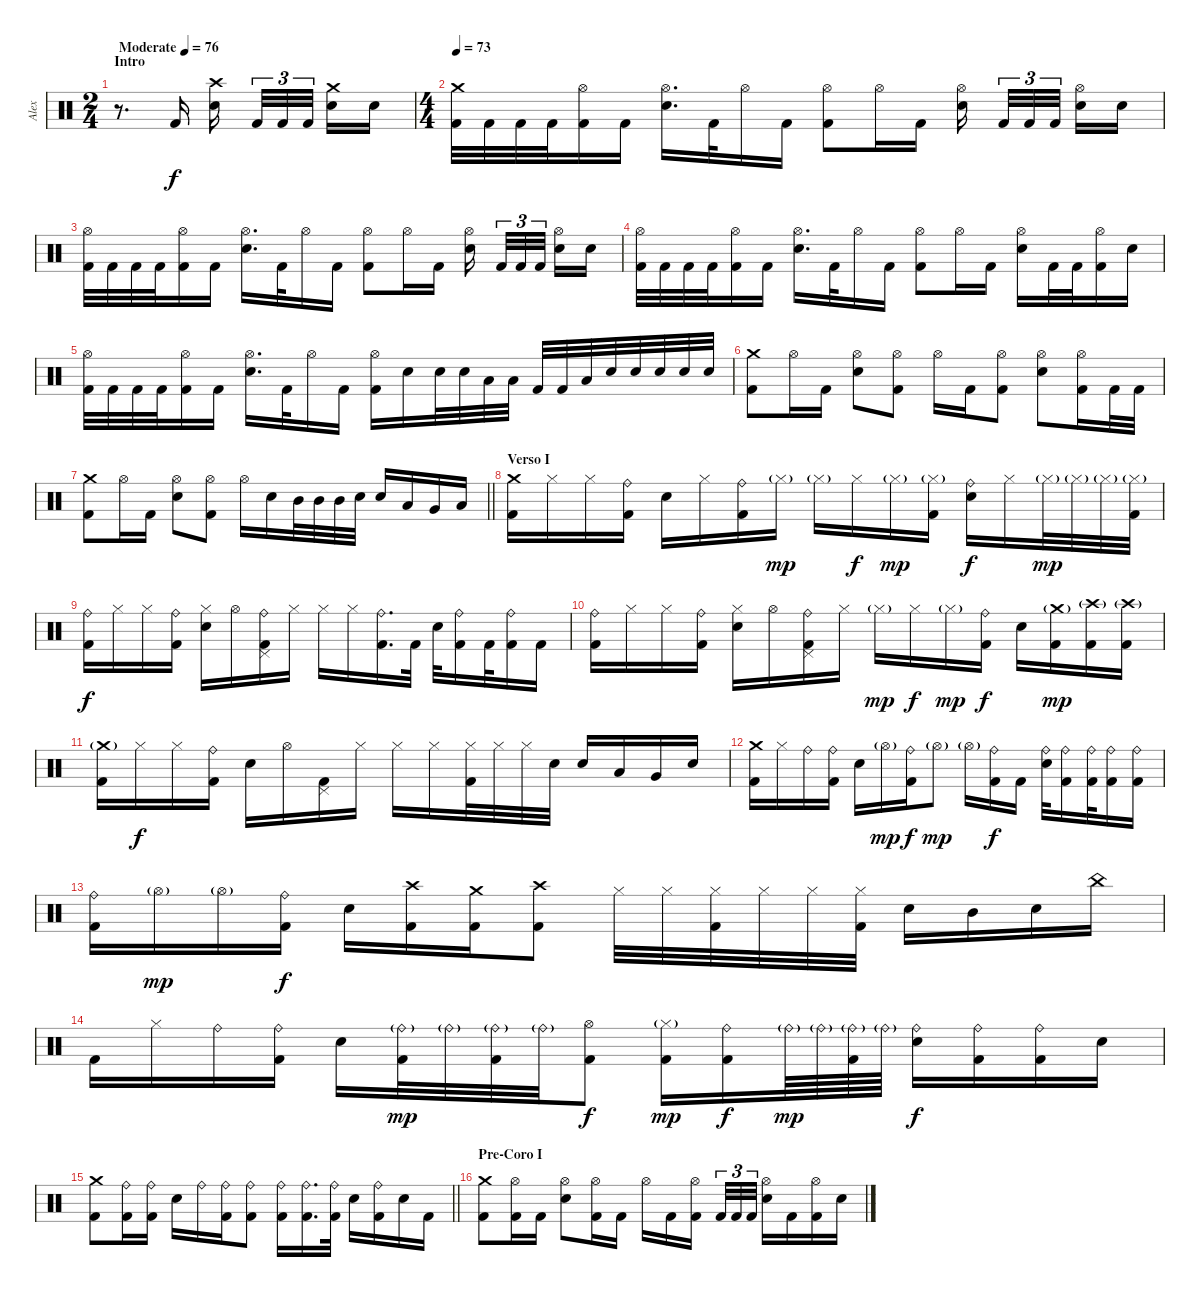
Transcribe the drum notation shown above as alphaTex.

\track ("Alex" "Alex") {instrument percussion}
\staff
\articulation defaults
\ts (2 4)
\section ("" "Intro")
\tempo (76 "Moderate")
\clef neutral
\ks c
r.8{d dy f} "Kick (hit) 2".16 ("Crash high (hit)" "Electric Snare (hit)").16{beam splitsecondary} "Kick (hit) 2".32{tu (3 2)} "Kick (hit) 2".32{tu (3 2)} "Kick (hit) 2".32{tu (3 2) beam splitsecondary} ("Crash medium (hit)" "Electric Snare (hit)").16 "Electric Snare (hit)".16 |
\ts (4 4)
\tempo 73
("Crash medium (hit)" "Kick (hit) 2").32 "Kick (hit) 2".32 "Kick (hit) 2".32 "Kick (hit) 2".32 ("Hi-Hat (open)" "Kick (hit) 2").16 "Kick (hit) 2".16 ("Hi-Hat (open)" "Electric Snare (hit)").16{d} "Kick (hit) 2".32 "Hi-Hat (open)".16 "Kick (hit) 2".16 ("Hi-Hat (open)" "Kick (hit) 2").8 "Hi-Hat (open)".16 "Kick (hit) 2".16 ("Hi-Hat (open)" "Electric Snare (hit)").16{beam splitsecondary} "Kick (hit) 2".32{tu (3 2)} "Kick (hit) 2".32{tu (3 2)} "Kick (hit) 2".32{tu (3 2) beam splitsecondary} ("Hi-Hat (open)" "Electric Snare (hit)").16 "Electric Snare (hit)".16 |
("Hi-Hat (open)" "Kick (hit) 2").32 "Kick (hit) 2".32 "Kick (hit) 2".32 "Kick (hit) 2".32 ("Hi-Hat (open)" "Kick (hit) 2").16 "Kick (hit) 2".16 ("Hi-Hat (open)" "Electric Snare (hit)").16{d} "Kick (hit) 2".32 "Hi-Hat (open)".16 "Kick (hit) 2".16 ("Hi-Hat (open)" "Kick (hit) 2").8 "Hi-Hat (open)".16 "Kick (hit) 2".16 ("Hi-Hat (open)" "Electric Snare (hit)").16{beam splitsecondary} "Kick (hit) 2".32{tu (3 2)} "Kick (hit) 2".32{tu (3 2)} "Kick (hit) 2".32{tu (3 2) beam splitsecondary} ("Hi-Hat (open)" "Electric Snare (hit)").16 "Electric Snare (hit)".16 |
("Hi-Hat (open)" "Kick (hit) 2").32 "Kick (hit) 2".32 "Kick (hit) 2".32 "Kick (hit) 2".32 ("Hi-Hat (open)" "Kick (hit) 2").16 "Kick (hit) 2".16 ("Hi-Hat (open)" "Electric Snare (hit)").16{d} "Kick (hit) 2".32 "Hi-Hat (open)".16 "Kick (hit) 2".16 ("Hi-Hat (open)" "Kick (hit) 2").8 "Hi-Hat (open)".16 "Kick (hit) 2".16 ("Hi-Hat (open)" "Electric Snare (hit)").16 "Kick (hit) 2".32 "Kick (hit) 2".32 ("Hi-Hat (open)" "Kick (hit) 2").16 "Electric Snare (hit)".16 |
("Hi-Hat (open)" "Kick (hit) 2").32 "Kick (hit) 2".32 "Kick (hit) 2".32 "Kick (hit) 2".32 ("Hi-Hat (open)" "Kick (hit) 2").16 "Kick (hit) 2".16 ("Hi-Hat (open)" "Electric Snare (hit)").16{d} "Kick (hit) 2".32 "Hi-Hat (open)".16 "Kick (hit) 2".16 ("Hi-Hat (open)" "Kick (hit) 2").16 "Electric Snare (hit)".16 "Electric Snare (hit)".32 "Electric Snare (hit)".32 "Low Tom (hit)".32 "Low Tom (hit)".32 "Kick (hit) 2".32 "Kick (hit) 2".32 "Low Tom (hit)".32 "Electric Snare (hit)".32 "Electric Snare (hit)".32 "Electric Snare (hit)".32 "Electric Snare (hit)".32 "Electric Snare (hit)".32 |
("Crash medium (hit)" "Kick (hit) 2").8 "Hi-Hat (open)".16 "Kick (hit) 2".16 ("Hi-Hat (open)" "Electric Snare (hit)").8 ("Hi-Hat (open)" "Kick (hit) 2").8 "Hi-Hat (open)".16 "Kick (hit) 2".16 ("Hi-Hat (open)" "Kick (hit) 2").8 ("Hi-Hat (open)" "Electric Snare (hit)").8 ("Hi-Hat (open)" "Kick (hit) 2").16 "Kick (hit) 2".32 "Kick (hit) 2".32 |
\barLineRight lightlight
("Crash medium (hit)" "Kick (hit) 2").8 "Hi-Hat (open)".16 "Kick (hit) 2".16 ("Hi-Hat (open)" "Electric Snare (hit)").8 ("Hi-Hat (open)" "Kick (hit) 2").8 "Hi-Hat (open)".16 "Electric Snare (hit)".16 "Mid Tom (hit)".32 "Mid Tom (hit)".32 "Mid Tom (hit)".32 "Electric Snare (hit)".32 "Electric Snare (hit)".16 "Low Tom (hit)".16 "Very Low Tom (hit)".16 "Low Floor Tom (hit)".16 |
\section ("" "Verso I")
("Crash medium (hit)" "Kick (hit) 2").16 "Hi-Hat (closed)".16 "Hi-Hat (closed)".16 ("Ride (bell)" "Kick (hit) 2").16 "Electric Snare (hit)".16 "Hi-Hat (closed)".16 ("Ride (bell)" "Kick (hit) 2").16 "Hi-Hat (closed)"{g}.16{dy mp} "Hi-Hat (closed)"{g}.16 "Hi-Hat (closed)".16{dy f} "Hi-Hat (closed)"{g}.16{dy mp} ("Hi-Hat (closed)"{g} "Kick (hit) 2").16 ("Ride (bell)" "Electric Snare (hit)").16{dy f} "Hi-Hat (closed)".16 "Hi-Hat (closed)"{g}.32{dy mp} "Hi-Hat (closed)"{g}.32 "Hi-Hat (closed)"{g}.32 ("Hi-Hat (closed)"{g} "Kick (hit) 2").32 |
("Ride (bell)" "Kick (hit) 2").16{dy f} "Hi-Hat (closed)".16 "Hi-Hat (closed)".16 ("Ride (bell)" "Kick (hit) 2").16 ("Hi-Hat (closed)" "Electric Snare (hit)").16 "Hi-Hat (open)".16 ("Ride (bell)" "Pedal Hi-Hat (hit)" "Kick (hit) 2").16 "Hi-Hat (closed)".16 "Hi-Hat (closed)".16 "Hi-Hat (closed)".16 ("Ride (bell)" "Kick (hit) 2").16{d} "Kick (hit) 2".32 "Electric Snare (hit)".32 ("Ride (bell)" "Kick (hit) 2").16 "Kick (hit) 2".32 ("Ride (bell)" "Kick (hit) 2").16 "Kick (hit) 2".16 |
("Ride (bell)" "Kick (hit) 2").16 "Hi-Hat (closed)".16 "Hi-Hat (closed)".16 ("Ride (bell)" "Kick (hit) 2").16 ("Hi-Hat (closed)" "Electric Snare (hit)").16 "Hi-Hat (open)".16 ("Ride (bell)" "Pedal Hi-Hat (hit)" "Kick (hit) 2").16 "Hi-Hat (closed)".16 "Hi-Hat (closed)"{g}.16{dy mp} "Hi-Hat (closed)".16{dy f} "Hi-Hat (closed)"{g}.16{dy mp} ("Ride (bell)" "Kick (hit) 2").16{dy f} "Electric Snare (hit)".16 ("Crash medium (hit)"{g} "Kick (hit) 2").16{dy mp} ("Crash high (hit)"{g} "Kick (hit) 2").16 ("Crash high (hit)"{g} "Kick (hit) 2").16 |
("Crash medium (hit)"{g} "Kick (hit) 2").16 "Hi-Hat (closed)".16{dy f} "Hi-Hat (closed)".16 ("Ride (bell)" "Kick (hit) 2").16 "Electric Snare (hit)".16 "Hi-Hat (open)".16 ("Pedal Hi-Hat (hit)" "Kick (hit) 2").16 "Hi-Hat (closed)".16 "Hi-Hat (closed)".16 "Hi-Hat (closed)".16 ("Hi-Hat (closed)" "Kick (hit) 2").32 "Hi-Hat (closed)".32 "Hi-Hat (closed)".32 "Electric Snare (hit)".32 "Electric Snare (hit)".16 "Low Tom (hit)".16 "Very Low Tom (hit)".16 "Electric Snare (hit)".16 |
("Crash medium (hit)" "Kick (hit) 2").16 "Hi-Hat (closed)".16 "Ride (bell)".16 ("Ride (bell)" "Kick (hit) 2").16 "Electric Snare (hit)".16 "Hi-Hat (open)"{g}.16{dy mp} ("Ride (bell)" "Kick (hit) 2").16{dy f} "Hi-Hat (open)"{g}.8{dy mp} "Hi-Hat (open)"{g}.16 ("Ride (bell)" "Kick (hit) 2").16{dy f} "Kick (hit) 2".16 ("Ride (bell)" "Electric Snare (hit)").32 ("Ride (bell)" "Kick (hit) 2").16 ("Ride (bell)" "Kick (hit) 2").32 ("Ride (bell)" "Kick (hit) 2").16 ("Ride (bell)" "Kick (hit) 2").16 |
("Ride (bell)" "Kick (hit) 2").16 "Hi-Hat (open)"{g}.16{dy mp} "Hi-Hat (open)"{g}.16 ("Ride (bell)" "Kick (hit) 2").16{dy f} "Electric Snare (hit)".16 ("Crash high (hit)" "Kick (hit) 2").16 ("Crash medium (hit)" "Kick (hit) 2").16 ("Crash high (hit)" "Kick (hit) 2").8 "Hi-Hat (closed)".32 "Hi-Hat (closed)".32 ("Hi-Hat (closed)" "Kick (hit) 2").32 "Hi-Hat (closed)".32 "Hi-Hat (closed)".32 ("Hi-Hat (closed)" "Kick (hit) 2").32 "Electric Snare (hit)".16 "Mid Tom (hit)".16 "Electric Snare (hit)".16 "China (hit)".16 |
"Kick (hit) 2".16 "Hi-Hat (closed)".16 "Ride (bell)".16 ("Ride (bell)" "Kick (hit) 2").16 "Electric Snare (hit)".16 ("Ride (bell)"{g} "Kick (hit) 2").32{dy mp} "Ride (bell)"{g}.32 ("Ride (bell)"{g} "Kick (hit) 2").32 "Ride (bell)"{g}.32 ("Hi-Hat (open)" "Kick (hit) 2").8{dy f} ("Hi-Hat (closed)"{g} "Kick (hit) 2").16{dy mp} ("Ride (bell)" "Kick (hit) 2").16{dy f} "Ride (bell)"{g}.64{dy mp} "Ride (bell)"{g}.64 ("Ride (bell)"{g} "Kick (hit) 2").64 "Ride (bell)"{g}.64 ("Ride (bell)" "Electric Snare (hit)").16{dy f} ("Ride (bell)" "Kick (hit) 2").16 ("Ride (bell)" "Kick (hit) 2").16 "Electric Snare (hit)".16 |
\barLineRight lightlight
("Crash medium (hit)" "Kick (hit) 2").8 ("Ride (bell)" "Kick (hit) 2").16 ("Ride (bell)" "Kick (hit) 2").16 "Electric Snare (hit)".16 "Ride (bell)".16 ("Ride (bell)" "Kick (hit) 2").16 ("Ride (bell)" "Kick (hit) 2").8 ("Ride (bell)" "Kick (hit) 2").16 ("Ride (bell)" "Kick (hit) 2").16{d} ("Ride (bell)" "Kick (hit) 2").32 "Electric Snare (hit)".16 ("Ride (bell)" "Kick (hit) 2").16 "Electric Snare (hit)".16 "Kick (hit) 2".16 |
\section ("" "Pre-Coro I")
("Crash medium (hit)" "Kick (hit) 2").8 ("Hi-Hat (open)" "Kick (hit) 2").16 "Kick (hit) 2".16 ("Hi-Hat (open)" "Electric Snare (hit)").8 ("Hi-Hat (open)" "Kick (hit) 2").16 "Kick (hit) 2".16 "Hi-Hat (open)".16 "Kick (hit) 2".16 ("Hi-Hat (open)" "Kick (hit) 2").16{beam splitsecondary} "Kick (hit) 2".32{tu (3 2)} "Kick (hit) 2".32{tu (3 2)} "Kick (hit) 2".32{tu (3 2)} ("Hi-Hat (open)" "Electric Snare (hit)").16 "Kick (hit) 2".16 ("Hi-Hat (open)" "Kick (hit) 2").16 "Electric Snare (hit)".16
